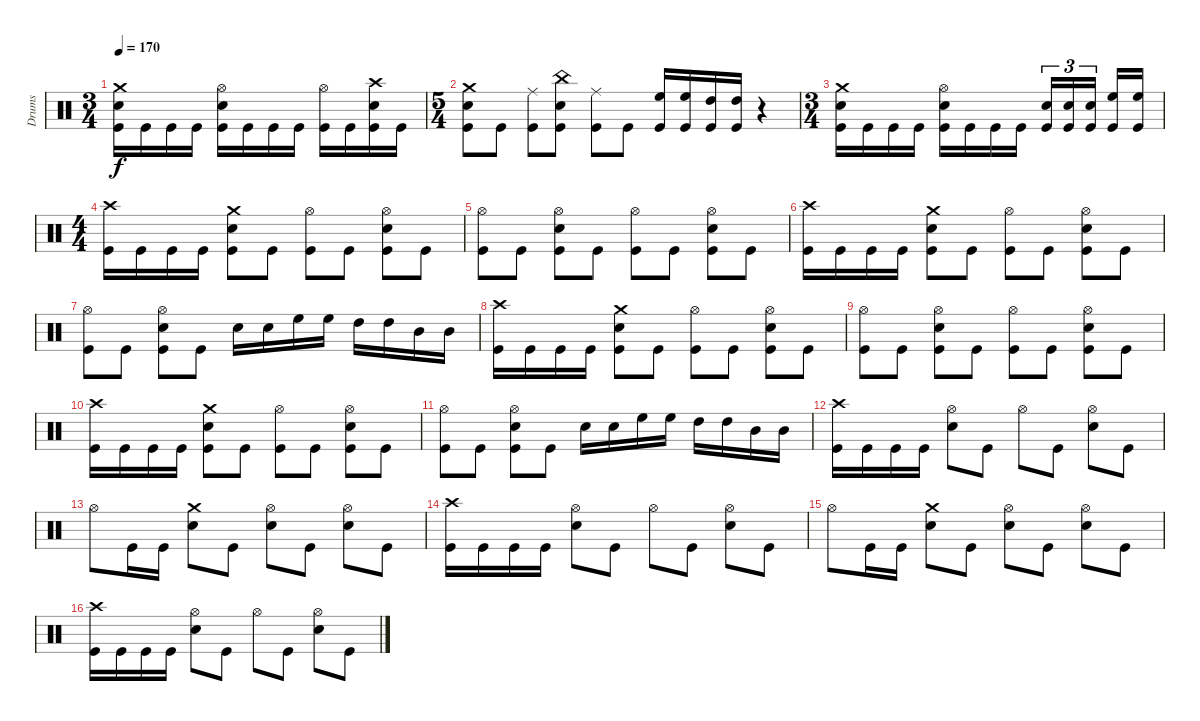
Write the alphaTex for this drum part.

\track ("Drums" "Drums") {instrument percussion}
\staff {score}
\articulation defaults
\ts (3 4)
\tempo 170
\clef neutral
\ks c
("Crash medium (hit)" "Electric Snare (hit)" "Kick (hit)").16{dy f} "Kick (hit)".16 "Kick (hit)".16 "Kick (hit)".16 ("Hi-Hat (open)" "Electric Snare (hit)" "Kick (hit)").16 "Kick (hit)".16 "Kick (hit)".16 "Kick (hit)".16 ("Hi-Hat (open)" "Kick (hit)").16 "Kick (hit)".16 ("Crash high (hit)" "Electric Snare (hit)" "Kick (hit)").16 "Kick (hit)".16 |
\ts (5 4)
("Crash medium (hit)" "Electric Snare (hit)" "Kick (hit)").8 "Kick (hit)".8 ("Ride (middle)" "Kick (hit)").8 ("China (hit)" "Electric Snare (hit)" "Kick (hit)").8 ("Ride (middle)" "Kick (hit)").8 "Kick (hit)".8 ("High Floor Tom (hit)" "Kick (hit)").16 ("High Floor Tom (hit)" "Kick (hit)").16 ("High Tom (hit)" "Kick (hit)").16 ("High Tom (hit)" "Kick (hit)").16 r.4 |
\ts (3 4)
("Crash medium (hit)" "Electric Snare (hit)" "Kick (hit)").16 "Kick (hit)".16 "Kick (hit)".16 "Kick (hit)".16 ("Hi-Hat (open)" "Electric Snare (hit)" "Kick (hit)").16 "Kick (hit)".16 "Kick (hit)".16 "Kick (hit)".16 ("Electric Snare (hit)" "Kick (hit)").16{tu (3 2)} ("Electric Snare (hit)" "Kick (hit)").16{tu (3 2)} ("Electric Snare (hit)" "Kick (hit)").16{tu (3 2)} ("High Floor Tom (hit)" "Kick (hit)").16 ("High Floor Tom (hit)" "Kick (hit)").16 |
\ts (4 4)
("Crash high (hit)" "Kick (hit)").16 "Kick (hit)".16 "Kick (hit)".16 "Kick (hit)".16 ("Crash medium (hit)" "Electric Snare (hit)" "Kick (hit)").8 "Kick (hit)".8 ("Hi-Hat (open)" "Kick (hit)").8 "Kick (hit)".8 ("Hi-Hat (open)" "Electric Snare (hit)" "Kick (hit)").8 "Kick (hit)".8 |
("Hi-Hat (open)" "Kick (hit)").8 "Kick (hit)".8 ("Hi-Hat (open)" "Electric Snare (hit)" "Kick (hit)").8 "Kick (hit)".8 ("Hi-Hat (open)" "Kick (hit)").8 "Kick (hit)".8 ("Hi-Hat (open)" "Electric Snare (hit)" "Kick (hit)").8 "Kick (hit)".8 |
("Crash high (hit)" "Kick (hit)").16 "Kick (hit)".16 "Kick (hit)".16 "Kick (hit)".16 ("Crash medium (hit)" "Electric Snare (hit)" "Kick (hit)").8 "Kick (hit)".8 ("Hi-Hat (open)" "Kick (hit)").8 "Kick (hit)".8 ("Hi-Hat (open)" "Electric Snare (hit)" "Kick (hit)").8 "Kick (hit)".8 |
("Hi-Hat (open)" "Kick (hit)").8 "Kick (hit)".8 ("Hi-Hat (open)" "Electric Snare (hit)" "Kick (hit)").8 "Kick (hit)".8 "Electric Snare (hit)".16 "Electric Snare (hit)".16 "High Floor Tom (hit)".16 "High Floor Tom (hit)".16 "High Tom (hit)".16 "High Tom (hit)".16 "Mid Tom (hit)".16 "Mid Tom (hit)".16 |
("Crash high (hit)" "Kick (hit)").16 "Kick (hit)".16 "Kick (hit)".16 "Kick (hit)".16 ("Crash medium (hit)" "Electric Snare (hit)" "Kick (hit)").8 "Kick (hit)".8 ("Hi-Hat (open)" "Kick (hit)").8 "Kick (hit)".8 ("Hi-Hat (open)" "Electric Snare (hit)" "Kick (hit)").8 "Kick (hit)".8 |
("Hi-Hat (open)" "Kick (hit)").8 "Kick (hit)".8 ("Hi-Hat (open)" "Electric Snare (hit)" "Kick (hit)").8 "Kick (hit)".8 ("Hi-Hat (open)" "Kick (hit)").8 "Kick (hit)".8 ("Hi-Hat (open)" "Electric Snare (hit)" "Kick (hit)").8 "Kick (hit)".8 |
("Crash high (hit)" "Kick (hit)").16 "Kick (hit)".16 "Kick (hit)".16 "Kick (hit)".16 ("Crash medium (hit)" "Electric Snare (hit)" "Kick (hit)").8 "Kick (hit)".8 ("Hi-Hat (open)" "Kick (hit)").8 "Kick (hit)".8 ("Hi-Hat (open)" "Electric Snare (hit)" "Kick (hit)").8 "Kick (hit)".8 |
("Hi-Hat (open)" "Kick (hit)").8 "Kick (hit)".8 ("Hi-Hat (open)" "Electric Snare (hit)" "Kick (hit)").8 "Kick (hit)".8 "Electric Snare (hit)".16 "Electric Snare (hit)".16 "High Floor Tom (hit)".16 "High Floor Tom (hit)".16 "High Tom (hit)".16 "High Tom (hit)".16 "Mid Tom (hit)".16 "Mid Tom (hit)".16 |
("Crash high (hit)" "Kick (hit)").16 "Kick (hit)".16 "Kick (hit)".16 "Kick (hit)".16 ("Hi-Hat (open)" "Electric Snare (hit)").8 "Kick (hit)".8 "Hi-Hat (open)".8 "Kick (hit)".8 ("Hi-Hat (open)" "Electric Snare (hit)").8 "Kick (hit)".8 |
"Hi-Hat (open)".8 "Kick (hit)".16 "Kick (hit)".16 ("Crash medium (hit)" "Electric Snare (hit)").8 "Kick (hit)".8 ("Hi-Hat (open)" "Electric Snare (hit)").8 "Kick (hit)".8 ("Hi-Hat (open)" "Electric Snare (hit)").8 "Kick (hit)".8 |
("Crash high (hit)" "Kick (hit)").16 "Kick (hit)".16 "Kick (hit)".16 "Kick (hit)".16 ("Hi-Hat (open)" "Electric Snare (hit)").8 "Kick (hit)".8 "Hi-Hat (open)".8 "Kick (hit)".8 ("Hi-Hat (open)" "Electric Snare (hit)").8 "Kick (hit)".8 |
"Hi-Hat (open)".8 "Kick (hit)".16 "Kick (hit)".16 ("Crash medium (hit)" "Electric Snare (hit)").8 "Kick (hit)".8 ("Hi-Hat (open)" "Electric Snare (hit)").8 "Kick (hit)".8 ("Hi-Hat (open)" "Electric Snare (hit)").8 "Kick (hit)".8 |
("Crash high (hit)" "Kick (hit)").16 "Kick (hit)".16 "Kick (hit)".16 "Kick (hit)".16 ("Hi-Hat (open)" "Electric Snare (hit)").8 "Kick (hit)".8 "Hi-Hat (open)".8 "Kick (hit)".8 ("Hi-Hat (open)" "Electric Snare (hit)").8 "Kick (hit)".8
